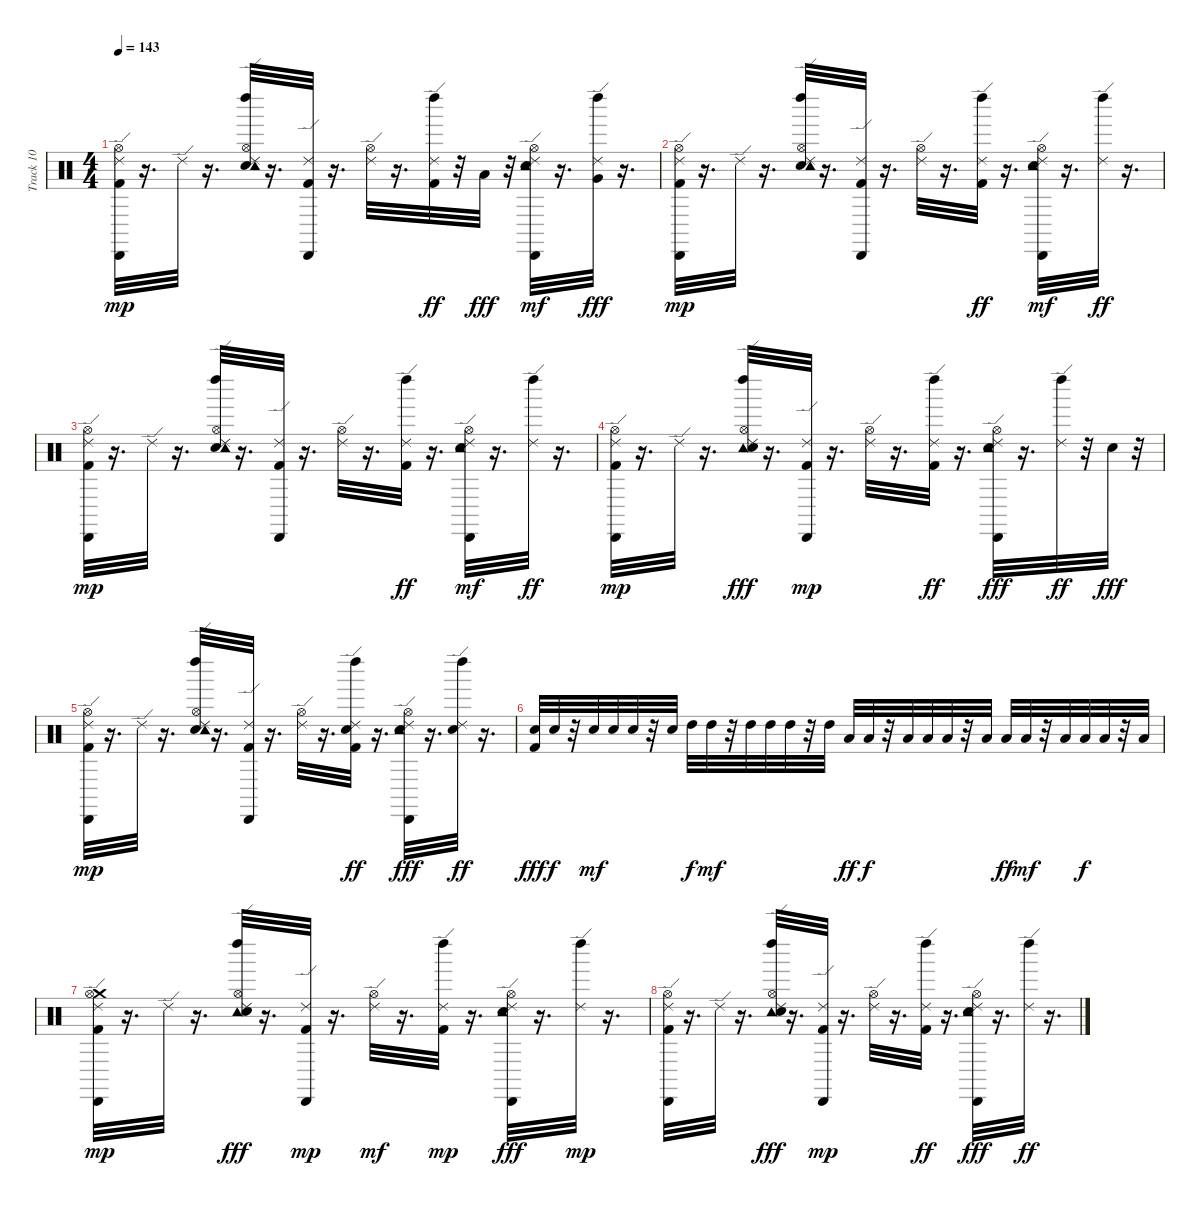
\track ("Track 10" "Track 10") {instrument percussion}
\staff {score}
\articulation defaults
\ts (4 4)
\tempo 143
\clef neutral
\ks c
("Kick (hit) 2" "Ride (edge) 2" "Cabasa (hit)" "Hi-Hat (open)").32{dy mp} r.16{d} "Ride (edge) 2".32 r.16{d} ("Snare (hit) 2" "Ride (edge) 2" "Tambourine (hit)" "Left Maraca (hit)" "Hi-Hat (open)").32 r.16{d} ("Kick (hit) 2" "Ride (edge) 2" "Cabasa (hit)").32 r.16{d} ("Ride (edge) 2" "Hi-Hat (open)").32 r.16{d} ("Kick (hit) 2" "Ride (edge) 2" "Left Maraca (hit)").32{dy ff} r.32 "Low Tom (hit)".32{dy fff} r.32 ("Snare (hit) 2" "Ride (edge) 2" "Tambourine (hit)" "Cabasa (hit)" "Hi-Hat (open)").32{dy mf} r.16{d} ("Ride (edge) 2" "Left Maraca (hit)" "Very Low Tom (hit)").32{dy fff} r.16{d} |
("Kick (hit) 2" "Ride (edge) 2" "Cabasa (hit)" "Hi-Hat (open)").32{dy mp} r.16{d} "Ride (edge) 2".32 r.16{d} ("Snare (hit) 2" "Ride (edge) 2" "Tambourine (hit)" "Left Maraca (hit)" "Hi-Hat (open)").32 r.16{d} ("Kick (hit) 2" "Ride (edge) 2" "Cabasa (hit)").32 r.16{d} ("Ride (edge) 2" "Hi-Hat (open)").32 r.16{d} ("Kick (hit) 2" "Ride (edge) 2" "Left Maraca (hit)").32{dy ff} r.16{d} ("Snare (hit) 2" "Ride (edge) 2" "Tambourine (hit)" "Cabasa (hit)" "Hi-Hat (open)").32{dy mf} r.16{d} ("Ride (edge) 2" "Left Maraca (hit)").32{dy ff} r.16{d} |
("Kick (hit) 2" "Ride (edge) 2" "Cabasa (hit)" "Hi-Hat (open)").32{dy mp} r.16{d} "Ride (edge) 2".32 r.16{d} ("Snare (hit) 2" "Ride (edge) 2" "Tambourine (hit)" "Left Maraca (hit)" "Hi-Hat (open)").32 r.16{d} ("Kick (hit) 2" "Ride (edge) 2" "Cabasa (hit)").32 r.16{d} ("Ride (edge) 2" "Hi-Hat (open)").32 r.16{d} ("Kick (hit) 2" "Ride (edge) 2" "Left Maraca (hit)").32{dy ff} r.16{d} ("Snare (hit) 2" "Ride (edge) 2" "Tambourine (hit)" "Cabasa (hit)" "Hi-Hat (open)").32{dy mf} r.16{d} ("Ride (edge) 2" "Left Maraca (hit)").32{dy ff} r.16{d} |
("Kick (hit) 2" "Ride (edge) 2" "Cabasa (hit)" "Hi-Hat (open)").32{dy mp} r.16{d} "Ride (edge) 2".32 r.16{d} ("Ride (edge) 2" "Tambourine (hit)" "Left Maraca (hit)" "Hi-Hat (open)" "Snare (hit) 2").32{dy fff} r.16{d} ("Kick (hit) 2" "Ride (edge) 2" "Cabasa (hit)").32{dy mp} r.16{d} ("Ride (edge) 2" "Hi-Hat (open)").32 r.16{d} ("Kick (hit) 2" "Ride (edge) 2" "Left Maraca (hit)").32{dy ff} r.16{d} ("Ride (edge) 2" "Tambourine (hit)" "Cabasa (hit)" "Hi-Hat (open)" "Snare (hit) 2").32{dy fff} r.16{d} ("Ride (edge) 2" "Left Maraca (hit)").32{dy ff} r.32 "Snare (hit) 2".32{dy fff} r.32 |
("Kick (hit) 2" "Ride (edge) 2" "Cabasa (hit)" "Hi-Hat (open)").32{dy mp} r.16{d} "Ride (edge) 2".32 r.16{d} ("Snare (hit) 2" "Ride (edge) 2" "Tambourine (hit)" "Left Maraca (hit)" "Hi-Hat (open)").32 r.16{d} ("Kick (hit) 2" "Ride (edge) 2" "Cabasa (hit)").32 r.16{d} ("Ride (edge) 2" "Hi-Hat (open)").32 r.16{d} ("Kick (hit) 2" "Ride (edge) 2" "Left Maraca (hit)" "Snare (hit) 2").32{dy ff} r.16{d} ("Ride (edge) 2" "Tambourine (hit)" "Cabasa (hit)" "Hi-Hat (open)" "Snare (hit) 2").32{dy fff} r.16{d} ("Ride (edge) 2" "Left Maraca (hit)" "Snare (hit) 2").32{dy ff} r.16{d} |
("Snare (hit) 2" "Kick (hit) 2").32{dy fff} "Snare (hit) 2".32{dy f} r.32 "Snare (hit) 2".32{dy mf} "Snare (hit) 2".32 "Snare (hit) 2".32 r.32 "Snare (hit) 2".32 "High Tom (hit)".32{dy f} "High Tom (hit)".32{dy mf} r.32 "High Tom (hit)".32 "High Tom (hit)".32 "High Tom (hit)".32 r.32 "High Tom (hit)".32 "Low Tom (hit)".32{dy ff} "Low Tom (hit)".32{dy f} r.32 "Low Tom (hit)".32 "Low Tom (hit)".32 "Low Tom (hit)".32 r.32 "Low Tom (hit)".32 "Low Floor Tom (hit)".32{dy ff} "Low Floor Tom (hit)".32{dy mf} r.32 "Low Floor Tom (hit)".32 "Low Floor Tom (hit)".32{dy f} "Low Floor Tom (hit)".32 r.32 "Low Floor Tom (hit)".32 |
("Kick (hit) 2" "Crash medium (hit)" "Ride (edge) 2" "Cabasa (hit)" "Hi-Hat (open)").32{dy mp} r.16{d} "Ride (edge) 2".32 r.16{d} ("Ride (edge) 2" "Tambourine (hit)" "Left Maraca (hit)" "Hi-Hat (open)" "Snare (hit) 2").32{dy fff} r.16{d} ("Kick (hit) 2" "Ride (edge) 2" "Cabasa (hit)").32{dy mp} r.16{d} ("Ride (edge) 2" "Hi-Hat (open)").32{dy mf} r.16{d} ("Kick (hit) 2" "Ride (edge) 2" "Left Maraca (hit)").32{dy mp} r.16{d} ("Ride (edge) 2" "Tambourine (hit)" "Cabasa (hit)" "Hi-Hat (open)" "Snare (hit) 2").32{dy fff} r.16{d} ("Ride (edge) 2" "Left Maraca (hit)").32{dy mp} r.16{d} |
("Kick (hit) 2" "Ride (edge) 2" "Cabasa (hit)" "Hi-Hat (open)").32 r.16{d} "Ride (edge) 2".32 r.16{d} ("Ride (edge) 2" "Tambourine (hit)" "Left Maraca (hit)" "Hi-Hat (open)" "Snare (hit) 2").32{dy fff} r.16{d} ("Kick (hit) 2" "Ride (edge) 2" "Cabasa (hit)").32{dy mp} r.16{d} ("Ride (edge) 2" "Hi-Hat (open)").32 r.16{d} ("Kick (hit) 2" "Ride (edge) 2" "Left Maraca (hit)").32{dy ff} r.16{d} ("Ride (edge) 2" "Tambourine (hit)" "Cabasa (hit)" "Hi-Hat (open)" "Snare (hit) 2").32{dy fff} r.16{d} ("Ride (edge) 2" "Left Maraca (hit)").32{dy ff} r.16{d}
